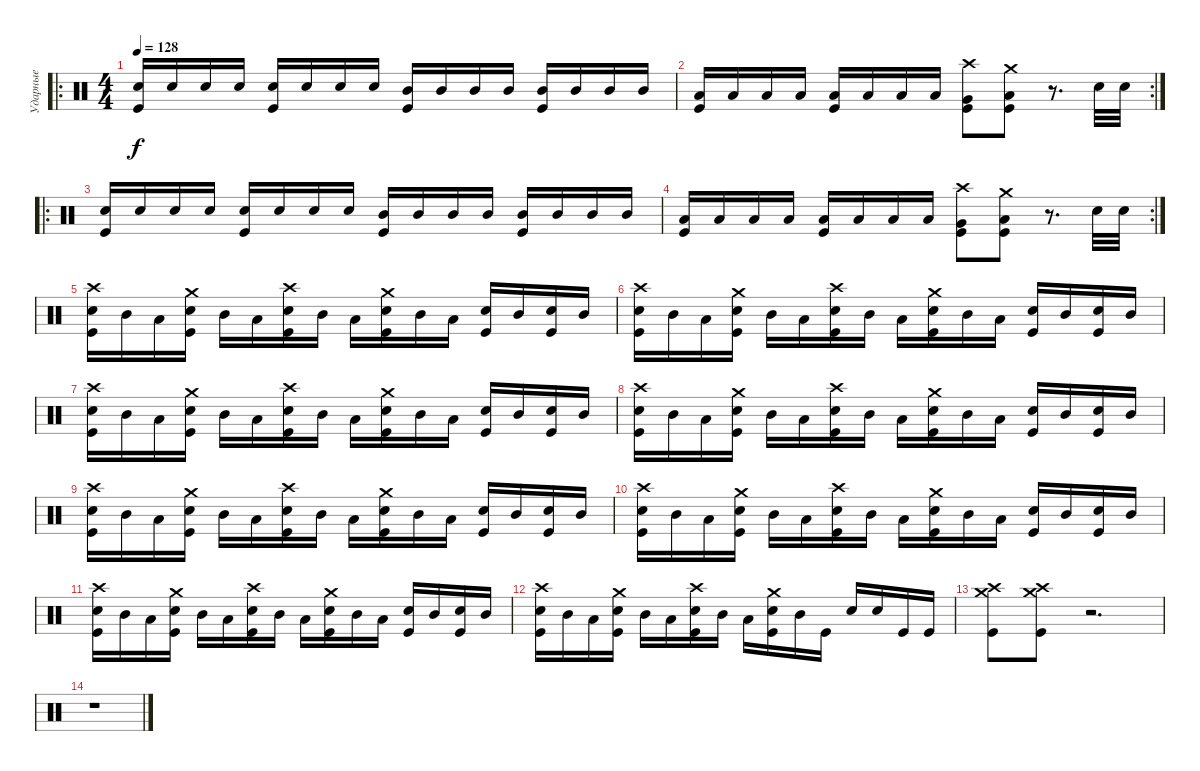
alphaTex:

\track ("Ударные" "Ударные") {instrument percussion}
\staff {score}
\articulation defaults
\ro
\ts (4 4)
\tempo 128
\clef neutral
\ks c
("Snare (hit) 2" "Kick (hit)").16{bd 60 dy f} "Snare (hit) 2".16 "Snare (hit) 2".16 "Snare (hit) 2".16 ("Snare (hit) 2" "Kick (hit)").16{bd 60} "Snare (hit) 2".16 "Snare (hit) 2".16 "Snare (hit) 2".16 ("Mid Tom (hit)" "Kick (hit)").16{bd 60} "Mid Tom (hit)".16 "Mid Tom (hit)".16 "Mid Tom (hit)".16 ("Mid Tom (hit)" "Kick (hit)").16{bd 60} "Mid Tom (hit)".16 "Mid Tom (hit)".16 "Mid Tom (hit)".16 |
\rc 2
("Low Tom (hit)" "Kick (hit)").16{bd 60} "Low Tom (hit)".16 "Low Tom (hit)".16 "Low Tom (hit)".16 ("Low Tom (hit)" "Kick (hit)").16{bd 60} "Low Tom (hit)".16 "Low Tom (hit)".16 "Low Tom (hit)".16 ("Kick (hit)" "Very Low Tom (hit)" "Crash high (hit)").8{bu 60} ("Kick (hit)" "Low Floor Tom (hit)" "Crash medium (hit)").8{bu 60} r.8{d} "Snare (hit) 2".32 "Snare (hit) 2".32 |
\ro
("Snare (hit) 2" "Kick (hit)").16{bd 60} "Snare (hit) 2".16 "Snare (hit) 2".16 "Snare (hit) 2".16 ("Snare (hit) 2" "Kick (hit)").16{bd 60} "Snare (hit) 2".16 "Snare (hit) 2".16 "Snare (hit) 2".16 ("Mid Tom (hit)" "Kick (hit)").16{bd 60} "Mid Tom (hit)".16 "Mid Tom (hit)".16 "Mid Tom (hit)".16 ("Mid Tom (hit)" "Kick (hit)").16{bd 60} "Mid Tom (hit)".16 "Mid Tom (hit)".16 "Mid Tom (hit)".16 |
\rc 2
("Low Tom (hit)" "Kick (hit)").16{bd 60} "Low Tom (hit)".16 "Low Tom (hit)".16 "Low Tom (hit)".16 ("Low Tom (hit)" "Kick (hit)").16{bd 60} "Low Tom (hit)".16 "Low Tom (hit)".16 "Low Tom (hit)".16 ("Kick (hit)" "Very Low Tom (hit)" "Crash high (hit)").8{bu 60} ("Kick (hit)" "Low Floor Tom (hit)" "Crash medium (hit)").8{bu 60} r.8{d} "Snare (hit) 2".32 "Snare (hit) 2".32 |
("Snare (hit) 2" "Kick (hit)" "Crash high (hit)").16{bd 60} "Mid Tom (hit)".16 "Low Tom (hit)".16 ("Snare (hit) 2" "Kick (hit)" "Crash medium (hit)").16{bd 60} "Mid Tom (hit)".16 "Low Tom (hit)".16 ("Snare (hit) 2" "Kick (hit)" "Crash high (hit)").16{bd 60} "Mid Tom (hit)".16 "Low Tom (hit)".16 ("Snare (hit) 2" "Kick (hit)" "Crash medium (hit)").16{bd 60} "Mid Tom (hit)".16 "Low Tom (hit)".16 ("Kick (hit)" "Snare (hit) 2").16{bu 60} "Mid Tom (hit)".16 ("Kick (hit)" "Snare (hit) 2").16{bu 60} "Mid Tom (hit)".16 |
("Snare (hit) 2" "Kick (hit)" "Crash high (hit)").16{bd 60} "Mid Tom (hit)".16 "Low Tom (hit)".16 ("Snare (hit) 2" "Kick (hit)" "Crash medium (hit)").16{bd 60} "Mid Tom (hit)".16 "Low Tom (hit)".16 ("Snare (hit) 2" "Kick (hit)" "Crash high (hit)").16{bd 60} "Mid Tom (hit)".16 "Low Tom (hit)".16 ("Snare (hit) 2" "Kick (hit)" "Crash medium (hit)").16{bd 60} "Mid Tom (hit)".16 "Low Tom (hit)".16 ("Kick (hit)" "Snare (hit) 2").16{bu 60} "Mid Tom (hit)".16 ("Kick (hit)" "Snare (hit) 2").16{bu 60} "Mid Tom (hit)".16 |
("Snare (hit) 2" "Kick (hit)" "Crash high (hit)").16{bd 60} "Mid Tom (hit)".16 "Low Tom (hit)".16 ("Snare (hit) 2" "Kick (hit)" "Crash medium (hit)").16{bd 60} "Mid Tom (hit)".16 "Low Tom (hit)".16 ("Snare (hit) 2" "Kick (hit)" "Crash high (hit)").16{bd 60} "Mid Tom (hit)".16 "Low Tom (hit)".16 ("Snare (hit) 2" "Kick (hit)" "Crash medium (hit)").16{bd 60} "Mid Tom (hit)".16 "Low Tom (hit)".16 ("Kick (hit)" "Snare (hit) 2").16{bu 60} "Mid Tom (hit)".16 ("Kick (hit)" "Snare (hit) 2").16{bu 60} "Mid Tom (hit)".16 |
("Snare (hit) 2" "Kick (hit)" "Crash high (hit)").16{bd 60} "Mid Tom (hit)".16 "Low Tom (hit)".16 ("Snare (hit) 2" "Kick (hit)" "Crash medium (hit)").16{bd 60} "Mid Tom (hit)".16 "Low Tom (hit)".16 ("Snare (hit) 2" "Kick (hit)" "Crash high (hit)").16{bd 60} "Mid Tom (hit)".16 "Low Tom (hit)".16 ("Snare (hit) 2" "Kick (hit)" "Crash medium (hit)").16{bd 60} "Mid Tom (hit)".16 "Low Tom (hit)".16 ("Kick (hit)" "Snare (hit) 2").16{bu 60} "Mid Tom (hit)".16 ("Kick (hit)" "Snare (hit) 2").16{bu 60} "Mid Tom (hit)".16 |
("Snare (hit) 2" "Kick (hit)" "Crash high (hit)").16{bd 60} "Mid Tom (hit)".16 "Low Tom (hit)".16 ("Snare (hit) 2" "Kick (hit)" "Crash medium (hit)").16{bd 60} "Mid Tom (hit)".16 "Low Tom (hit)".16 ("Snare (hit) 2" "Kick (hit)" "Crash high (hit)").16{bd 60} "Mid Tom (hit)".16 "Low Tom (hit)".16 ("Snare (hit) 2" "Kick (hit)" "Crash medium (hit)").16{bd 60} "Mid Tom (hit)".16 "Low Tom (hit)".16 ("Kick (hit)" "Snare (hit) 2").16{bu 60} "Mid Tom (hit)".16 ("Kick (hit)" "Snare (hit) 2").16{bu 60} "Mid Tom (hit)".16 |
("Snare (hit) 2" "Kick (hit)" "Crash high (hit)").16{bd 60} "Mid Tom (hit)".16 "Low Tom (hit)".16 ("Snare (hit) 2" "Kick (hit)" "Crash medium (hit)").16{bd 60} "Mid Tom (hit)".16 "Low Tom (hit)".16 ("Snare (hit) 2" "Kick (hit)" "Crash high (hit)").16{bd 60} "Mid Tom (hit)".16 "Low Tom (hit)".16 ("Snare (hit) 2" "Kick (hit)" "Crash medium (hit)").16{bd 60} "Mid Tom (hit)".16 "Low Tom (hit)".16 ("Kick (hit)" "Snare (hit) 2").16{bu 60} "Mid Tom (hit)".16 ("Kick (hit)" "Snare (hit) 2").16{bu 60} "Mid Tom (hit)".16 |
("Snare (hit) 2" "Kick (hit)" "Crash high (hit)").16{bd 60} "Mid Tom (hit)".16 "Low Tom (hit)".16 ("Snare (hit) 2" "Kick (hit)" "Crash medium (hit)").16{bd 60} "Mid Tom (hit)".16 "Low Tom (hit)".16 ("Snare (hit) 2" "Kick (hit)" "Crash high (hit)").16{bd 60} "Mid Tom (hit)".16 "Low Tom (hit)".16 ("Snare (hit) 2" "Kick (hit)" "Crash medium (hit)").16{bd 60} "Mid Tom (hit)".16 "Low Tom (hit)".16 ("Kick (hit)" "Snare (hit) 2").16{bu 60} "Mid Tom (hit)".16 ("Kick (hit)" "Snare (hit) 2").16{bu 60} "Mid Tom (hit)".16 |
("Snare (hit) 2" "Kick (hit)" "Crash high (hit)").16{bd 60} "Mid Tom (hit)".16 "Low Tom (hit)".16 ("Snare (hit) 2" "Kick (hit)" "Crash medium (hit)").16{bd 60} "Mid Tom (hit)".16 "Low Tom (hit)".16 ("Snare (hit) 2" "Kick (hit)" "Crash high (hit)").16{bd 60} "Mid Tom (hit)".16 "Low Tom (hit)".16 ("Snare (hit) 2" "Kick (hit)" "Crash medium (hit)").16{bd 60} "Mid Tom (hit)".16 "Kick (hit)".16 "Snare (hit) 2".16 "Snare (hit) 2".16 "Kick (hit)".16 "Kick (hit)".16 |
("Kick (hit)" "Crash medium (hit)" "Crash high (hit)").8 ("Kick (hit)" "Crash medium (hit)" "Crash high (hit)").8 r.2{d} |
r.1
